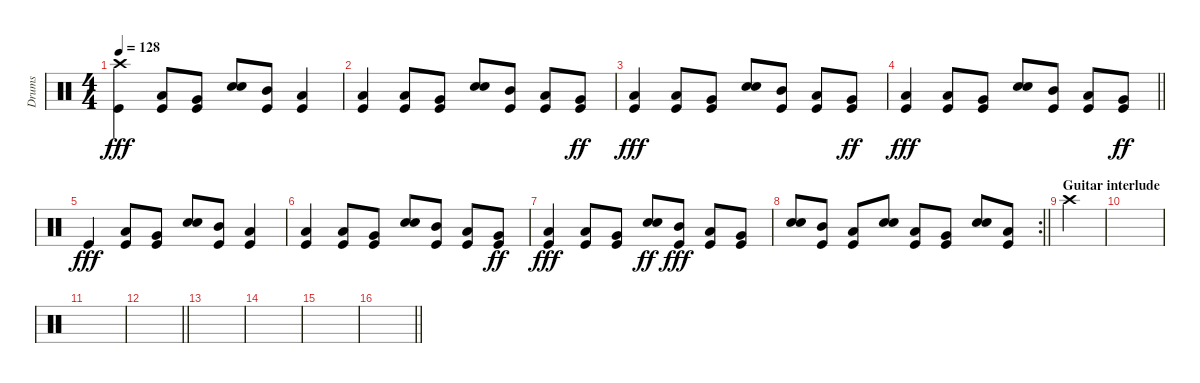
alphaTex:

\track ("Drums" "Drums") {instrument percussion}
\staff {score}
\articulation defaults
\ts (4 4)
\tempo 128
\clef neutral
\ks c
("Crash high (hit)" "Kick (hit)").4{dy fff} ("Low Tom (hit)" "Kick (hit)").8 ("Very Low Tom (hit)" "Kick (hit)").8 ("Snare (hit) 2" "Electric Snare (hit)").8 ("Mid Tom (hit)" "Kick (hit)").8 ("Low Tom (hit)" "Kick (hit)").4 |
("Low Tom (hit)" "Kick (hit)").4 ("Low Tom (hit)" "Kick (hit)").8 ("Very Low Tom (hit)" "Kick (hit)").8 ("Snare (hit) 2" "Electric Snare (hit)").8 ("Mid Tom (hit)" "Kick (hit)").8 ("Low Tom (hit)" "Kick (hit)").8 ("Very Low Tom (hit)" "Kick (hit)").8{dy ff} |
("Low Tom (hit)" "Kick (hit)").4{dy fff} ("Low Tom (hit)" "Kick (hit)").8 ("Very Low Tom (hit)" "Kick (hit)").8 ("Snare (hit) 2" "Electric Snare (hit)").8 ("Mid Tom (hit)" "Kick (hit)").8 ("Low Tom (hit)" "Kick (hit)").8 ("Very Low Tom (hit)" "Kick (hit)").8{dy ff} |
\barLineRight lightlight
("Low Tom (hit)" "Kick (hit)").4{dy fff} ("Low Tom (hit)" "Kick (hit)").8 ("Very Low Tom (hit)" "Kick (hit)").8 ("Snare (hit) 2" "Electric Snare (hit)").8 ("Mid Tom (hit)" "Kick (hit)").8 ("Low Tom (hit)" "Kick (hit)").8 ("Very Low Tom (hit)" "Kick (hit)").8{dy ff} |
"Kick (hit)".4{dy fff} ("Low Tom (hit)" "Kick (hit)").8 ("Very Low Tom (hit)" "Kick (hit)").8 ("Snare (hit) 2" "Electric Snare (hit)").8 ("Mid Tom (hit)" "Kick (hit)").8 ("Low Tom (hit)" "Kick (hit)").4 |
("Low Tom (hit)" "Kick (hit)").4 ("Low Tom (hit)" "Kick (hit)").8 ("Very Low Tom (hit)" "Kick (hit)").8 ("Snare (hit) 2" "Electric Snare (hit)").8 ("Mid Tom (hit)" "Kick (hit)").8 ("Low Tom (hit)" "Kick (hit)").8 ("Very Low Tom (hit)" "Kick (hit)").8{dy ff} |
("Low Tom (hit)" "Kick (hit)").4{dy fff} ("Low Tom (hit)" "Kick (hit)").8 ("Very Low Tom (hit)" "Kick (hit)").8 ("Snare (hit) 2" "Electric Snare (hit)").8{dy ff} ("Mid Tom (hit)" "Kick (hit)").8{dy fff} ("Low Tom (hit)" "Kick (hit)").8 ("Very Low Tom (hit)" "Kick (hit)").8 |
\rc 2
\barLineRight lightlight
("Snare (hit) 2" "Electric Snare (hit)").8 ("Mid Tom (hit)" "Kick (hit)").8 ("Low Tom (hit)" "Kick (hit)").8 ("Snare (hit) 2" "Electric Snare (hit)").8 ("Low Tom (hit)" "Kick (hit)").8 ("Very Low Tom (hit)" "Kick (hit)").8 ("Snare (hit) 2" "Electric Snare (hit)").8 ("Low Tom (hit)" "Kick (hit)").8 |
\section ("" "Guitar interlude")
"Crash high (hit)".4 |
|
|
\barLineRight lightlight
|
|
|
|
\barLineRight lightlight
